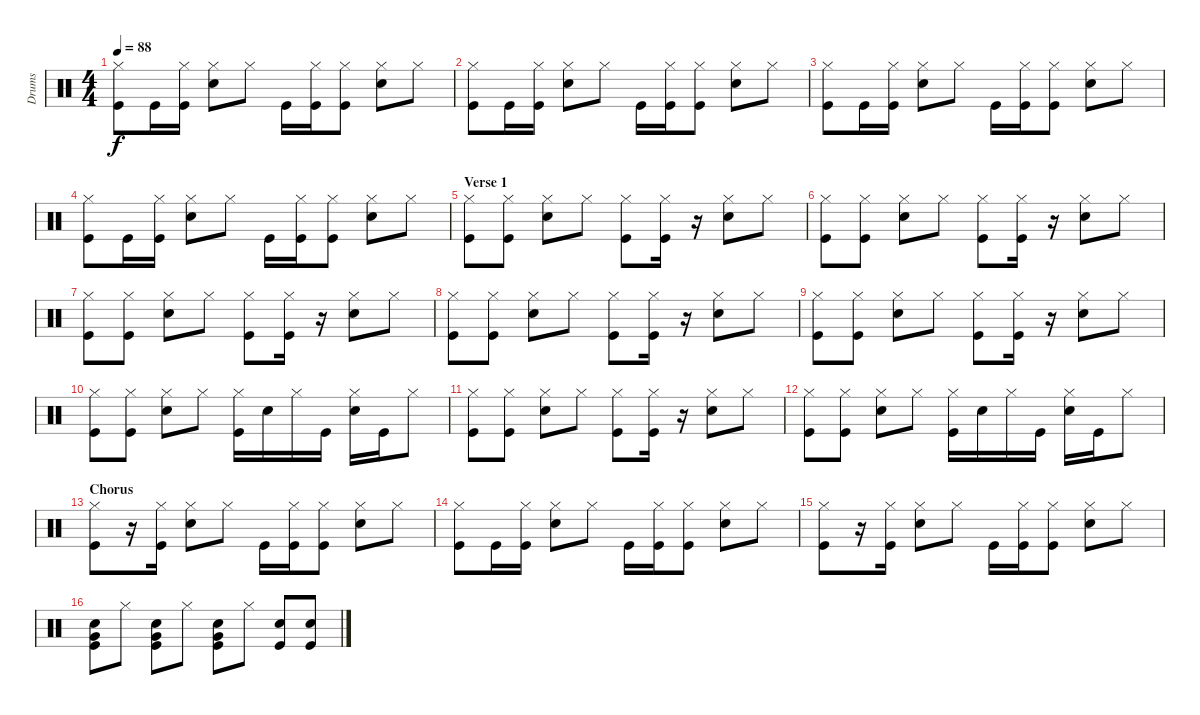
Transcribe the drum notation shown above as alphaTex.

\track ("Drums" "Drums") {instrument percussion}
\staff {score}
\articulation defaults
\ts (4 4)
\tempo 88
\clef neutral
\ks c
("Hi-Hat (closed)" "Kick (hit)").8{dy f} "Kick (hit)".16 ("Hi-Hat (closed)" "Kick (hit)").16 ("Hi-Hat (closed)" "Snare (hit) 2").8 "Hi-Hat (closed)".8 "Kick (hit)".16 ("Hi-Hat (closed)" "Kick (hit)").16 ("Hi-Hat (closed)" "Kick (hit)").8 ("Hi-Hat (closed)" "Snare (hit) 2").8 "Hi-Hat (closed)".8 |
("Hi-Hat (closed)" "Kick (hit)").8 "Kick (hit)".16 ("Hi-Hat (closed)" "Kick (hit)").16 ("Hi-Hat (closed)" "Snare (hit) 2").8 "Hi-Hat (closed)".8 "Kick (hit)".16 ("Hi-Hat (closed)" "Kick (hit)").16 ("Hi-Hat (closed)" "Kick (hit)").8 ("Hi-Hat (closed)" "Snare (hit) 2").8 "Hi-Hat (closed)".8 |
("Hi-Hat (closed)" "Kick (hit)").8 "Kick (hit)".16 ("Hi-Hat (closed)" "Kick (hit)").16 ("Hi-Hat (closed)" "Snare (hit) 2").8 "Hi-Hat (closed)".8 "Kick (hit)".16 ("Hi-Hat (closed)" "Kick (hit)").16 ("Hi-Hat (closed)" "Kick (hit)").8 ("Hi-Hat (closed)" "Snare (hit) 2").8 "Hi-Hat (closed)".8 |
("Hi-Hat (closed)" "Kick (hit)").8 "Kick (hit)".16 ("Hi-Hat (closed)" "Kick (hit)").16 ("Hi-Hat (closed)" "Snare (hit) 2").8 "Hi-Hat (closed)".8 "Kick (hit)".16 ("Hi-Hat (closed)" "Kick (hit)").16 ("Hi-Hat (closed)" "Kick (hit)").8 ("Hi-Hat (closed)" "Snare (hit) 2").8 "Hi-Hat (closed)".8 |
\section ("" "Verse 1")
("Hi-Hat (closed)" "Kick (hit)").8 ("Hi-Hat (closed)" "Kick (hit)").8 ("Hi-Hat (closed)" "Snare (hit) 2").8 "Hi-Hat (closed)".8 ("Hi-Hat (closed)" "Kick (hit)").8 ("Hi-Hat (closed)" "Kick (hit)").16 r.16 ("Hi-Hat (closed)" "Snare (hit) 2").8 "Hi-Hat (closed)".8 |
("Hi-Hat (closed)" "Kick (hit)").8 ("Hi-Hat (closed)" "Kick (hit)").8 ("Hi-Hat (closed)" "Snare (hit) 2").8 "Hi-Hat (closed)".8 ("Hi-Hat (closed)" "Kick (hit)").8 ("Hi-Hat (closed)" "Kick (hit)").16 r.16 ("Hi-Hat (closed)" "Snare (hit) 2").8 "Hi-Hat (closed)".8 |
("Hi-Hat (closed)" "Kick (hit)").8 ("Hi-Hat (closed)" "Kick (hit)").8 ("Hi-Hat (closed)" "Snare (hit) 2").8 "Hi-Hat (closed)".8 ("Hi-Hat (closed)" "Kick (hit)").8 ("Hi-Hat (closed)" "Kick (hit)").16 r.16 ("Hi-Hat (closed)" "Snare (hit) 2").8 "Hi-Hat (closed)".8 |
("Hi-Hat (closed)" "Kick (hit)").8 ("Hi-Hat (closed)" "Kick (hit)").8 ("Hi-Hat (closed)" "Snare (hit) 2").8 "Hi-Hat (closed)".8 ("Hi-Hat (closed)" "Kick (hit)").8 ("Hi-Hat (closed)" "Kick (hit)").16 r.16 ("Hi-Hat (closed)" "Snare (hit) 2").8 "Hi-Hat (closed)".8 |
("Hi-Hat (closed)" "Kick (hit)").8 ("Hi-Hat (closed)" "Kick (hit)").8 ("Hi-Hat (closed)" "Snare (hit) 2").8 "Hi-Hat (closed)".8 ("Hi-Hat (closed)" "Kick (hit)").8 ("Hi-Hat (closed)" "Kick (hit)").16 r.16 ("Hi-Hat (closed)" "Snare (hit) 2").8 "Hi-Hat (closed)".8 |
("Hi-Hat (closed)" "Kick (hit)").8 ("Hi-Hat (closed)" "Kick (hit)").8 ("Hi-Hat (closed)" "Snare (hit) 2").8 "Hi-Hat (closed)".8 ("Hi-Hat (closed)" "Kick (hit)").16 "Snare (hit) 2".16 "Hi-Hat (closed)".16 "Kick (hit)".16 ("Hi-Hat (closed)" "Snare (hit) 2").16 "Kick (hit)".16 "Hi-Hat (closed)".8 |
("Hi-Hat (closed)" "Kick (hit)").8 ("Hi-Hat (closed)" "Kick (hit)").8 ("Hi-Hat (closed)" "Snare (hit) 2").8 "Hi-Hat (closed)".8 ("Hi-Hat (closed)" "Kick (hit)").8 ("Hi-Hat (closed)" "Kick (hit)").16 r.16 ("Hi-Hat (closed)" "Snare (hit) 2").8 "Hi-Hat (closed)".8 |
("Hi-Hat (closed)" "Kick (hit)").8 ("Hi-Hat (closed)" "Kick (hit)").8 ("Hi-Hat (closed)" "Snare (hit) 2").8 "Hi-Hat (closed)".8 ("Hi-Hat (closed)" "Kick (hit)").16 "Snare (hit) 2".16 "Hi-Hat (closed)".16 "Kick (hit)".16 ("Hi-Hat (closed)" "Snare (hit) 2").16 "Kick (hit)".16 "Hi-Hat (closed)".8 |
\section ("" "Chorus")
("Hi-Hat (closed)" "Kick (hit)").8 r.16 ("Hi-Hat (closed)" "Kick (hit)").16 ("Hi-Hat (closed)" "Snare (hit) 2").8 "Hi-Hat (closed)".8 "Kick (hit)".16 ("Hi-Hat (closed)" "Kick (hit)").16 ("Hi-Hat (closed)" "Kick (hit)").8 ("Hi-Hat (closed)" "Snare (hit) 2").8 "Hi-Hat (closed)".8 |
("Hi-Hat (closed)" "Kick (hit)").8 "Kick (hit)".16 ("Hi-Hat (closed)" "Kick (hit)").16 ("Hi-Hat (closed)" "Snare (hit) 2").8 "Hi-Hat (closed)".8 "Kick (hit)".16 ("Hi-Hat (closed)" "Kick (hit)").16 ("Hi-Hat (closed)" "Kick (hit)").8 ("Hi-Hat (closed)" "Snare (hit) 2").8 "Hi-Hat (closed)".8 |
("Hi-Hat (closed)" "Kick (hit)").8 r.16 ("Hi-Hat (closed)" "Kick (hit)").16 ("Hi-Hat (closed)" "Snare (hit) 2").8 "Hi-Hat (closed)".8 "Kick (hit)".16 ("Hi-Hat (closed)" "Kick (hit)").16 ("Hi-Hat (closed)" "Kick (hit)").8 ("Hi-Hat (closed)" "Snare (hit) 2").8 "Hi-Hat (closed)".8 |
("Very Low Tom (hit)" "Snare (hit) 2" "Kick (hit)").8 "Hi-Hat (closed)".8 ("Snare (hit) 2" "Kick (hit)" "Very Low Tom (hit)").8 "Hi-Hat (closed)".8 ("Snare (hit) 2" "Kick (hit)" "Very Low Tom (hit)").8 "Hi-Hat (closed)".8 ("Snare (hit) 2" "Kick (hit)").8 ("Snare (hit) 2" "Kick (hit)").8
